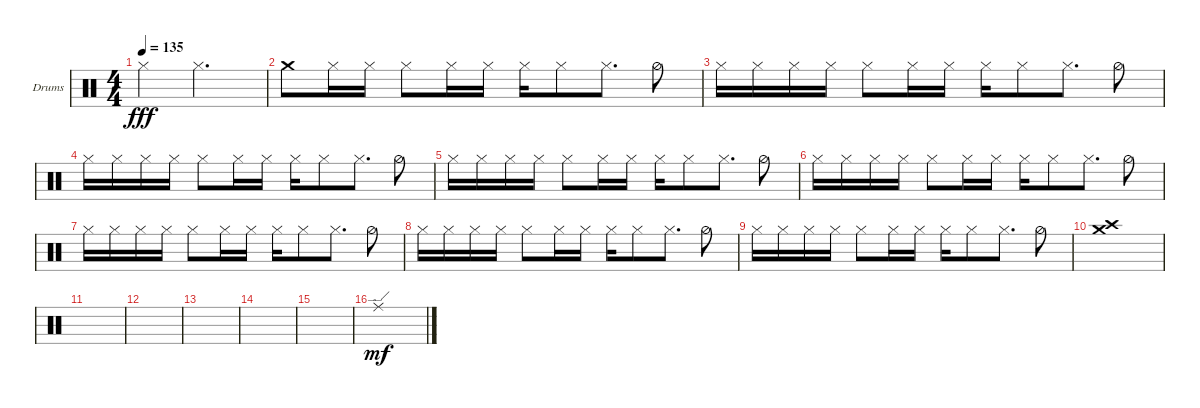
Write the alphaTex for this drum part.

\defaultSystemsLayout 4
\bracketExtendMode groupsimilarinstruments
\firstSystemTrackNameOrientation horizontal
\otherSystemsTrackNameOrientation horizontal
\track ("Helders" "Drums") {instrument percussion}
\staff {score}
\articulation defaults
\ts (4 4)
\tempo 135
\clef neutral
\ks c "Hi-Hat (closed)".4{dy fff} "Hi-Hat (closed)".2{d}
|
"Crash medium (hit)".8 "Hi-Hat (closed)".16 "Hi-Hat (closed)".16 "Hi-Hat (closed)".8 "Hi-Hat (closed)".16 "Hi-Hat (closed)".16 "Hi-Hat (closed)".16 "Hi-Hat (closed)".8 "Hi-Hat (closed)".8{d} "Hi-Hat (half)".8 |
"Hi-Hat (closed)".16 "Hi-Hat (closed)".16 "Hi-Hat (closed)".16 "Hi-Hat (closed)".16 "Hi-Hat (closed)".8 "Hi-Hat (closed)".16 "Hi-Hat (closed)".16 "Hi-Hat (closed)".16 "Hi-Hat (closed)".8 "Hi-Hat (closed)".8{d} "Hi-Hat (half)".8 |
"Hi-Hat (closed)".16 "Hi-Hat (closed)".16 "Hi-Hat (closed)".16 "Hi-Hat (closed)".16 "Hi-Hat (closed)".8 "Hi-Hat (closed)".16 "Hi-Hat (closed)".16 "Hi-Hat (closed)".16 "Hi-Hat (closed)".8 "Hi-Hat (closed)".8{d} "Hi-Hat (half)".8 |
"Hi-Hat (closed)".16 "Hi-Hat (closed)".16 "Hi-Hat (closed)".16 "Hi-Hat (closed)".16 "Hi-Hat (closed)".8 "Hi-Hat (closed)".16 "Hi-Hat (closed)".16 "Hi-Hat (closed)".16 "Hi-Hat (closed)".8 "Hi-Hat (closed)".8{d} "Hi-Hat (half)".8 |
"Hi-Hat (closed)".16 "Hi-Hat (closed)".16 "Hi-Hat (closed)".16 "Hi-Hat (closed)".16 "Hi-Hat (closed)".8 "Hi-Hat (closed)".16 "Hi-Hat (closed)".16 "Hi-Hat (closed)".16 "Hi-Hat (closed)".8 "Hi-Hat (closed)".8{d} "Hi-Hat (half)".8 |
"Hi-Hat (closed)".16 "Hi-Hat (closed)".16 "Hi-Hat (closed)".16 "Hi-Hat (closed)".16 "Hi-Hat (closed)".8 "Hi-Hat (closed)".16 "Hi-Hat (closed)".16 "Hi-Hat (closed)".16 "Hi-Hat (closed)".8 "Hi-Hat (closed)".8{d} "Hi-Hat (half)".8 |
"Hi-Hat (closed)".16 "Hi-Hat (closed)".16 "Hi-Hat (closed)".16 "Hi-Hat (closed)".16 "Hi-Hat (closed)".8 "Hi-Hat (closed)".16 "Hi-Hat (closed)".16 "Hi-Hat (closed)".16 "Hi-Hat (closed)".8 "Hi-Hat (closed)".8{d} "Hi-Hat (half)".8 |
"Hi-Hat (closed)".16 "Hi-Hat (closed)".16 "Hi-Hat (closed)".16 "Hi-Hat (closed)".16 "Hi-Hat (closed)".8 "Hi-Hat (closed)".16 "Hi-Hat (closed)".16 "Hi-Hat (closed)".16 "Hi-Hat (closed)".8 "Hi-Hat (closed)".8{d} "Hi-Hat (half)".8 |
("Crash medium (hit)" "Crash high (hit)").1 |
|
|
|
|
|
"Ride (edge)".1{dy mf}
